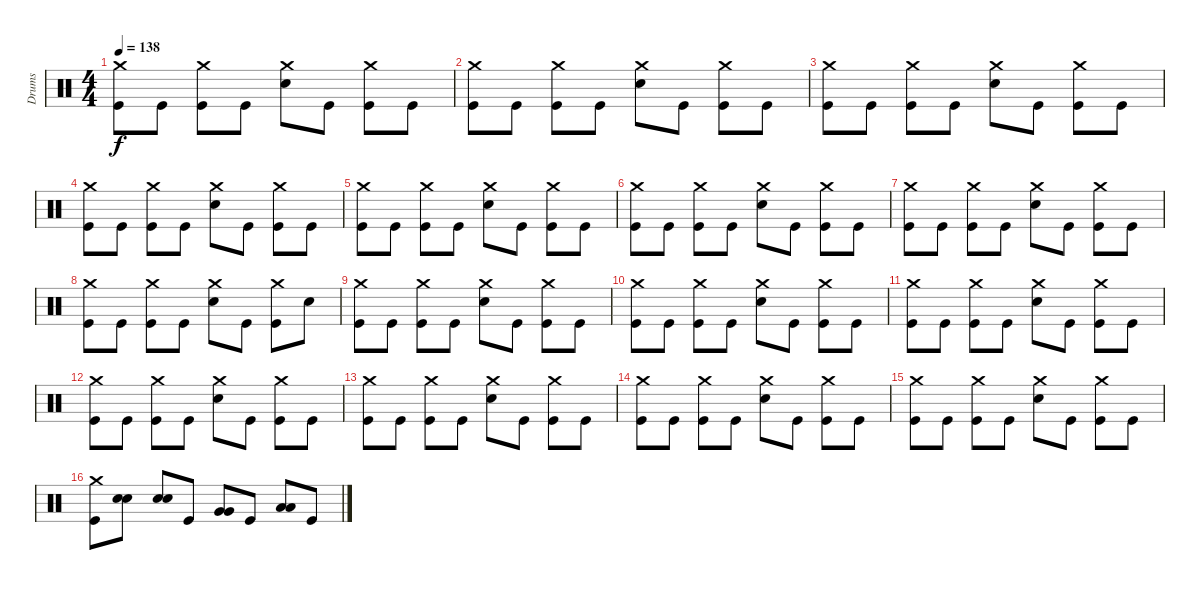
\track ("Drums" "Drums") {instrument percussion}
\staff {score}
\articulation defaults
\ts (4 4)
\tempo 138
\clef neutral
\ks c
("Crash medium (hit)" "Kick (hit)").8{dy f} "Kick (hit)".8 ("Crash medium (hit)" "Kick (hit)").8 "Kick (hit)".8 ("Crash medium (hit)" "Snare (hit) 2").8 "Kick (hit)".8 ("Crash medium (hit)" "Kick (hit)").8 "Kick (hit)".8 |
("Crash medium (hit)" "Kick (hit)").8 "Kick (hit)".8 ("Crash medium (hit)" "Kick (hit)").8 "Kick (hit)".8 ("Crash medium (hit)" "Snare (hit) 2").8 "Kick (hit)".8 ("Crash medium (hit)" "Kick (hit)").8 "Kick (hit)".8 |
("Crash medium (hit)" "Kick (hit)").8 "Kick (hit)".8 ("Crash medium (hit)" "Kick (hit)").8 "Kick (hit)".8 ("Crash medium (hit)" "Snare (hit) 2").8 "Kick (hit)".8 ("Crash medium (hit)" "Kick (hit)").8 "Kick (hit)".8 |
("Crash medium (hit)" "Kick (hit)").8 "Kick (hit)".8 ("Crash medium (hit)" "Kick (hit)").8 "Kick (hit)".8 ("Crash medium (hit)" "Snare (hit) 2").8 "Kick (hit)".8 ("Crash medium (hit)" "Kick (hit)").8 "Kick (hit)".8 |
("Crash medium (hit)" "Kick (hit)").8 "Kick (hit)".8 ("Crash medium (hit)" "Kick (hit)").8 "Kick (hit)".8 ("Crash medium (hit)" "Snare (hit) 2").8 "Kick (hit)".8 ("Crash medium (hit)" "Kick (hit)").8 "Kick (hit)".8 |
("Crash medium (hit)" "Kick (hit)").8 "Kick (hit)".8 ("Crash medium (hit)" "Kick (hit)").8 "Kick (hit)".8 ("Crash medium (hit)" "Snare (hit) 2").8 "Kick (hit)".8 ("Crash medium (hit)" "Kick (hit)").8 "Kick (hit)".8 |
("Crash medium (hit)" "Kick (hit)").8 "Kick (hit)".8 ("Crash medium (hit)" "Kick (hit)").8 "Kick (hit)".8 ("Crash medium (hit)" "Snare (hit) 2").8 "Kick (hit)".8 ("Crash medium (hit)" "Kick (hit)").8 "Kick (hit)".8 |
("Crash medium (hit)" "Kick (hit)").8 "Kick (hit)".8 ("Crash medium (hit)" "Kick (hit)").8 "Kick (hit)".8 ("Crash medium (hit)" "Snare (hit) 2").8 "Kick (hit)".8 ("Crash medium (hit)" "Kick (hit)").8 "Snare (hit) 2".8 |
("Crash medium (hit)" "Kick (hit)").8 "Kick (hit)".8 ("Crash medium (hit)" "Kick (hit)").8 "Kick (hit)".8 ("Crash medium (hit)" "Snare (hit) 2").8 "Kick (hit)".8 ("Crash medium (hit)" "Kick (hit)").8 "Kick (hit)".8 |
("Crash medium (hit)" "Kick (hit)").8 "Kick (hit)".8 ("Crash medium (hit)" "Kick (hit)").8 "Kick (hit)".8 ("Crash medium (hit)" "Snare (hit) 2").8 "Kick (hit)".8 ("Crash medium (hit)" "Kick (hit)").8 "Kick (hit)".8 |
("Crash medium (hit)" "Kick (hit)").8 "Kick (hit)".8 ("Crash medium (hit)" "Kick (hit)").8 "Kick (hit)".8 ("Crash medium (hit)" "Snare (hit) 2").8 "Kick (hit)".8 ("Crash medium (hit)" "Kick (hit)").8 "Kick (hit)".8 |
("Crash medium (hit)" "Kick (hit)").8 "Kick (hit)".8 ("Crash medium (hit)" "Kick (hit)").8 "Kick (hit)".8 ("Crash medium (hit)" "Snare (hit) 2").8 "Kick (hit)".8 ("Crash medium (hit)" "Kick (hit)").8 "Kick (hit)".8 |
("Crash medium (hit)" "Kick (hit)").8 "Kick (hit)".8 ("Crash medium (hit)" "Kick (hit)").8 "Kick (hit)".8 ("Crash medium (hit)" "Snare (hit) 2").8 "Kick (hit)".8 ("Crash medium (hit)" "Kick (hit)").8 "Kick (hit)".8 |
("Crash medium (hit)" "Kick (hit)").8 "Kick (hit)".8 ("Crash medium (hit)" "Kick (hit)").8 "Kick (hit)".8 ("Crash medium (hit)" "Snare (hit) 2").8 "Kick (hit)".8 ("Crash medium (hit)" "Kick (hit)").8 "Kick (hit)".8 |
("Crash medium (hit)" "Kick (hit)").8 "Kick (hit)".8 ("Crash medium (hit)" "Kick (hit)").8 "Kick (hit)".8 ("Crash medium (hit)" "Snare (hit) 2").8 "Kick (hit)".8 ("Crash medium (hit)" "Kick (hit)").8 "Kick (hit)".8 |
("Crash medium (hit)" "Kick (hit)").8 ("Snare (hit) 2" "Snare (hit) 2").8 ("Snare (hit) 2" "Snare (hit) 2").8 "Kick (hit)".8 ("Very Low Tom (hit)" "Very Low Tom (hit)").8 "Kick (hit)".8 ("Low Floor Tom (hit)" "Low Floor Tom (hit)").8 "Kick (hit)".8
